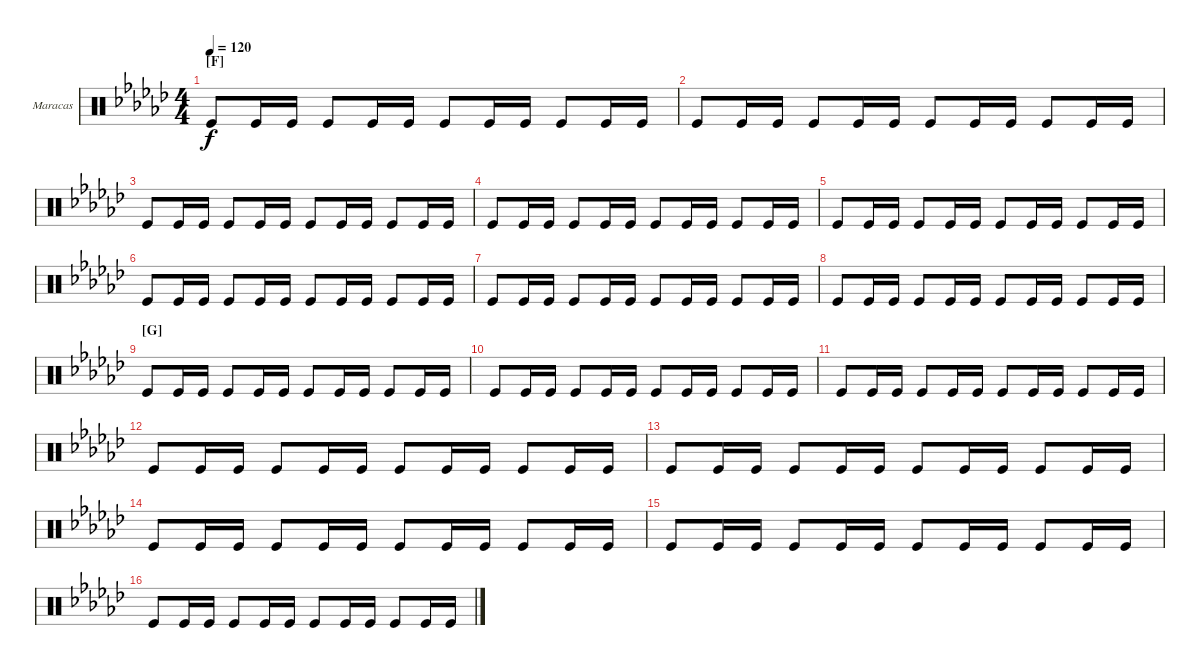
\defaultSystemsLayout 4
\bracketExtendMode groupsimilarinstruments
\firstSystemTrackNameOrientation horizontal
\otherSystemsTrackNameOrientation horizontal
\track ("Maracas" "Maracas") {instrument percussion}
\staff {score}
\articulation defaults
\ts (4 4)
\section ("F" "")
\tempo 120
\clef neutral
\ks ebminor "Kick (hit)".8{dy f} "Kick (hit)".16 "Kick (hit)".16 "Kick (hit)".8 "Kick (hit)".16 "Kick (hit)".16 "Kick (hit)".8 "Kick (hit)".16 "Kick (hit)".16 "Kick (hit)".8 "Kick (hit)".16 "Kick (hit)".16
|
"Kick (hit)".8 "Kick (hit)".16 "Kick (hit)".16 "Kick (hit)".8 "Kick (hit)".16 "Kick (hit)".16 "Kick (hit)".8 "Kick (hit)".16 "Kick (hit)".16 "Kick (hit)".8 "Kick (hit)".16 "Kick (hit)".16 |
"Kick (hit)".8 "Kick (hit)".16 "Kick (hit)".16 "Kick (hit)".8 "Kick (hit)".16 "Kick (hit)".16 "Kick (hit)".8 "Kick (hit)".16 "Kick (hit)".16 "Kick (hit)".8 "Kick (hit)".16 "Kick (hit)".16 |
"Kick (hit)".8 "Kick (hit)".16 "Kick (hit)".16 "Kick (hit)".8 "Kick (hit)".16 "Kick (hit)".16 "Kick (hit)".8 "Kick (hit)".16 "Kick (hit)".16 "Kick (hit)".8 "Kick (hit)".16 "Kick (hit)".16 |
"Kick (hit)".8 "Kick (hit)".16 "Kick (hit)".16 "Kick (hit)".8 "Kick (hit)".16 "Kick (hit)".16 "Kick (hit)".8 "Kick (hit)".16 "Kick (hit)".16 "Kick (hit)".8 "Kick (hit)".16 "Kick (hit)".16 |
"Kick (hit)".8 "Kick (hit)".16 "Kick (hit)".16 "Kick (hit)".8 "Kick (hit)".16 "Kick (hit)".16 "Kick (hit)".8 "Kick (hit)".16 "Kick (hit)".16 "Kick (hit)".8 "Kick (hit)".16 "Kick (hit)".16 |
"Kick (hit)".8 "Kick (hit)".16 "Kick (hit)".16 "Kick (hit)".8 "Kick (hit)".16 "Kick (hit)".16 "Kick (hit)".8 "Kick (hit)".16 "Kick (hit)".16 "Kick (hit)".8 "Kick (hit)".16 "Kick (hit)".16 |
"Kick (hit)".8 "Kick (hit)".16 "Kick (hit)".16 "Kick (hit)".8 "Kick (hit)".16 "Kick (hit)".16 "Kick (hit)".8 "Kick (hit)".16 "Kick (hit)".16 "Kick (hit)".8 "Kick (hit)".16 "Kick (hit)".16 |
\section ("G" "")
"Kick (hit)".8 "Kick (hit)".16 "Kick (hit)".16 "Kick (hit)".8 "Kick (hit)".16 "Kick (hit)".16 "Kick (hit)".8 "Kick (hit)".16 "Kick (hit)".16 "Kick (hit)".8 "Kick (hit)".16 "Kick (hit)".16 |
"Kick (hit)".8 "Kick (hit)".16 "Kick (hit)".16 "Kick (hit)".8 "Kick (hit)".16 "Kick (hit)".16 "Kick (hit)".8 "Kick (hit)".16 "Kick (hit)".16 "Kick (hit)".8 "Kick (hit)".16 "Kick (hit)".16 |
"Kick (hit)".8 "Kick (hit)".16 "Kick (hit)".16 "Kick (hit)".8 "Kick (hit)".16 "Kick (hit)".16 "Kick (hit)".8 "Kick (hit)".16 "Kick (hit)".16 "Kick (hit)".8 "Kick (hit)".16 "Kick (hit)".16 |
"Kick (hit)".8 "Kick (hit)".16 "Kick (hit)".16 "Kick (hit)".8 "Kick (hit)".16 "Kick (hit)".16 "Kick (hit)".8 "Kick (hit)".16 "Kick (hit)".16 "Kick (hit)".8 "Kick (hit)".16 "Kick (hit)".16 |
"Kick (hit)".8 "Kick (hit)".16 "Kick (hit)".16 "Kick (hit)".8 "Kick (hit)".16 "Kick (hit)".16 "Kick (hit)".8 "Kick (hit)".16 "Kick (hit)".16 "Kick (hit)".8 "Kick (hit)".16 "Kick (hit)".16 |
"Kick (hit)".8 "Kick (hit)".16 "Kick (hit)".16 "Kick (hit)".8 "Kick (hit)".16 "Kick (hit)".16 "Kick (hit)".8 "Kick (hit)".16 "Kick (hit)".16 "Kick (hit)".8 "Kick (hit)".16 "Kick (hit)".16 |
"Kick (hit)".8 "Kick (hit)".16 "Kick (hit)".16 "Kick (hit)".8 "Kick (hit)".16 "Kick (hit)".16 "Kick (hit)".8 "Kick (hit)".16 "Kick (hit)".16 "Kick (hit)".8 "Kick (hit)".16 "Kick (hit)".16 |
"Kick (hit)".8 "Kick (hit)".16 "Kick (hit)".16 "Kick (hit)".8 "Kick (hit)".16 "Kick (hit)".16 "Kick (hit)".8 "Kick (hit)".16 "Kick (hit)".16 "Kick (hit)".8 "Kick (hit)".16 "Kick (hit)".16
